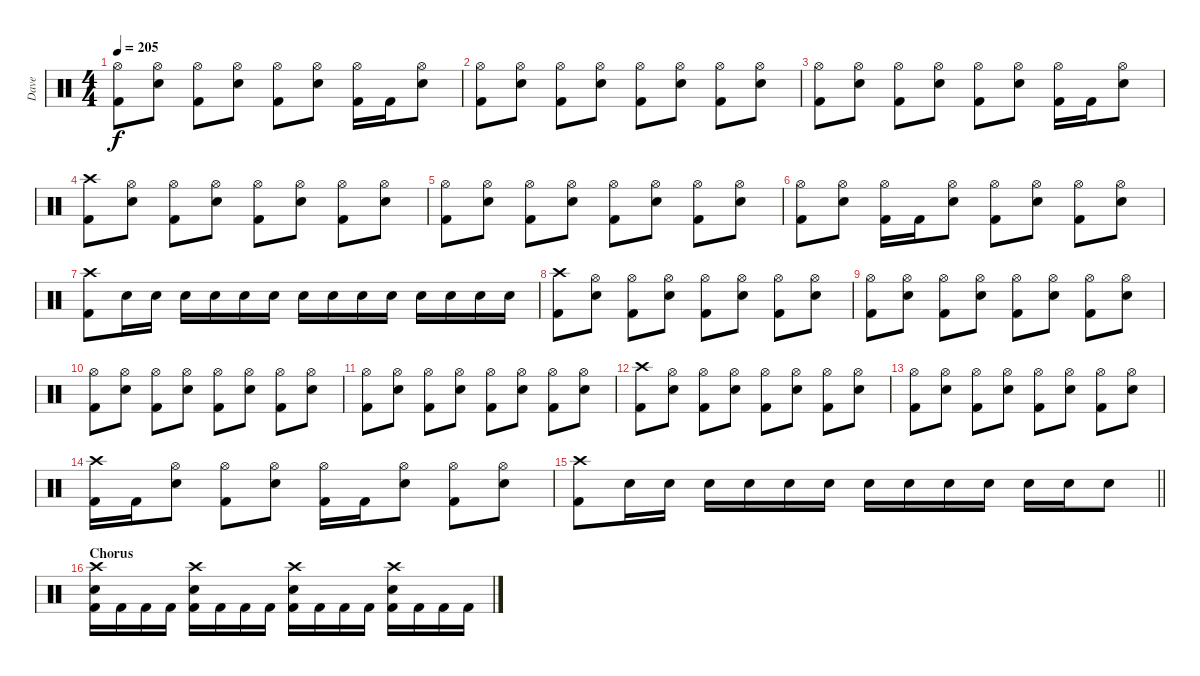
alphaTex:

\track ("Dave" "Dave") {instrument percussion}
\staff {score}
\articulation defaults
\ts (4 4)
\tempo 205
\clef neutral
\ks c
("Hi-Hat (open)" "Kick (hit) 2").8{dy f} ("Electric Snare (hit)" "Hi-Hat (open)").8 ("Kick (hit) 2" "Hi-Hat (open)").8 ("Electric Snare (hit)" "Hi-Hat (open)").8 ("Kick (hit) 2" "Hi-Hat (open)").8 ("Electric Snare (hit)" "Hi-Hat (open)").8 ("Kick (hit) 2" "Hi-Hat (open)").16 "Kick (hit) 2".16 ("Electric Snare (hit)" "Hi-Hat (open)").8 |
("Hi-Hat (open)" "Kick (hit) 2").8 ("Electric Snare (hit)" "Hi-Hat (open)").8 ("Kick (hit) 2" "Hi-Hat (open)").8 ("Electric Snare (hit)" "Hi-Hat (open)").8 ("Kick (hit) 2" "Hi-Hat (open)").8 ("Electric Snare (hit)" "Hi-Hat (open)").8 ("Kick (hit) 2" "Hi-Hat (open)").8 ("Electric Snare (hit)" "Hi-Hat (open)").8 |
("Hi-Hat (open)" "Kick (hit) 2").8 ("Electric Snare (hit)" "Hi-Hat (open)").8 ("Kick (hit) 2" "Hi-Hat (open)").8 ("Electric Snare (hit)" "Hi-Hat (open)").8 ("Kick (hit) 2" "Hi-Hat (open)").8 ("Electric Snare (hit)" "Hi-Hat (open)").8 ("Kick (hit) 2" "Hi-Hat (open)").16 "Kick (hit) 2".16 ("Electric Snare (hit)" "Hi-Hat (open)").8 |
("Crash high (hit)" "Kick (hit) 2").8 ("Electric Snare (hit)" "Hi-Hat (open)").8 ("Kick (hit) 2" "Hi-Hat (open)").8 ("Electric Snare (hit)" "Hi-Hat (open)").8 ("Kick (hit) 2" "Hi-Hat (open)").8 ("Electric Snare (hit)" "Hi-Hat (open)").8 ("Kick (hit) 2" "Hi-Hat (open)").8 ("Electric Snare (hit)" "Hi-Hat (open)").8 |
("Hi-Hat (open)" "Kick (hit) 2").8 ("Electric Snare (hit)" "Hi-Hat (open)").8 ("Kick (hit) 2" "Hi-Hat (open)").8 ("Electric Snare (hit)" "Hi-Hat (open)").8 ("Kick (hit) 2" "Hi-Hat (open)").8 ("Electric Snare (hit)" "Hi-Hat (open)").8 ("Kick (hit) 2" "Hi-Hat (open)").8 ("Electric Snare (hit)" "Hi-Hat (open)").8 |
("Hi-Hat (open)" "Kick (hit) 2").8 ("Electric Snare (hit)" "Hi-Hat (open)").8 ("Kick (hit) 2" "Hi-Hat (open)").16 "Kick (hit) 2".16 ("Electric Snare (hit)" "Hi-Hat (open)").8 ("Kick (hit) 2" "Hi-Hat (open)").8 ("Electric Snare (hit)" "Hi-Hat (open)").8 ("Kick (hit) 2" "Hi-Hat (open)").8 ("Electric Snare (hit)" "Hi-Hat (open)").8 |
("Kick (hit) 2" "Crash high (hit)").8 "Electric Snare (hit)".16 "Electric Snare (hit)".16 "Electric Snare (hit)".16 "Electric Snare (hit)".16 "Electric Snare (hit)".16 "Electric Snare (hit)".16 "Electric Snare (hit)".16 "Electric Snare (hit)".16 "Electric Snare (hit)".16 "Electric Snare (hit)".16 "Electric Snare (hit)".16 "Electric Snare (hit)".16 "Electric Snare (hit)".16 "Electric Snare (hit)".16 |
("Crash high (hit)" "Kick (hit) 2").8 ("Electric Snare (hit)" "Hi-Hat (open)").8 ("Kick (hit) 2" "Hi-Hat (open)").8 ("Electric Snare (hit)" "Hi-Hat (open)").8 ("Kick (hit) 2" "Hi-Hat (open)").8 ("Electric Snare (hit)" "Hi-Hat (open)").8 ("Kick (hit) 2" "Hi-Hat (open)").8 ("Electric Snare (hit)" "Hi-Hat (open)").8 |
("Hi-Hat (open)" "Kick (hit) 2").8 ("Electric Snare (hit)" "Hi-Hat (open)").8 ("Kick (hit) 2" "Hi-Hat (open)").8 ("Electric Snare (hit)" "Hi-Hat (open)").8 ("Kick (hit) 2" "Hi-Hat (open)").8 ("Electric Snare (hit)" "Hi-Hat (open)").8 ("Kick (hit) 2" "Hi-Hat (open)").8 ("Electric Snare (hit)" "Hi-Hat (open)").8 |
("Hi-Hat (open)" "Kick (hit) 2").8 ("Electric Snare (hit)" "Hi-Hat (open)").8 ("Kick (hit) 2" "Hi-Hat (open)").8 ("Electric Snare (hit)" "Hi-Hat (open)").8 ("Kick (hit) 2" "Hi-Hat (open)").8 ("Electric Snare (hit)" "Hi-Hat (open)").8 ("Kick (hit) 2" "Hi-Hat (open)").8 ("Electric Snare (hit)" "Hi-Hat (open)").8 |
("Hi-Hat (open)" "Kick (hit) 2").8 ("Electric Snare (hit)" "Hi-Hat (open)").8 ("Kick (hit) 2" "Hi-Hat (open)").8 ("Electric Snare (hit)" "Hi-Hat (open)").8 ("Kick (hit) 2" "Hi-Hat (open)").8 ("Electric Snare (hit)" "Hi-Hat (open)").8 ("Kick (hit) 2" "Hi-Hat (open)").8 ("Electric Snare (hit)" "Hi-Hat (open)").8 |
("Crash high (hit)" "Kick (hit) 2").8 ("Electric Snare (hit)" "Hi-Hat (open)").8 ("Kick (hit) 2" "Hi-Hat (open)").8 ("Electric Snare (hit)" "Hi-Hat (open)").8 ("Kick (hit) 2" "Hi-Hat (open)").8 ("Electric Snare (hit)" "Hi-Hat (open)").8 ("Kick (hit) 2" "Hi-Hat (open)").8 ("Electric Snare (hit)" "Hi-Hat (open)").8 |
("Hi-Hat (open)" "Kick (hit) 2").8 ("Electric Snare (hit)" "Hi-Hat (open)").8 ("Kick (hit) 2" "Hi-Hat (open)").8 ("Electric Snare (hit)" "Hi-Hat (open)").8 ("Kick (hit) 2" "Hi-Hat (open)").8 ("Electric Snare (hit)" "Hi-Hat (open)").8 ("Kick (hit) 2" "Hi-Hat (open)").8 ("Electric Snare (hit)" "Hi-Hat (open)").8 |
("Crash high (hit)" "Kick (hit) 2").16 "Kick (hit) 2".16 ("Electric Snare (hit)" "Hi-Hat (open)").8 ("Kick (hit) 2" "Hi-Hat (open)").8 ("Electric Snare (hit)" "Hi-Hat (open)").8 ("Kick (hit) 2" "Hi-Hat (open)").16 "Kick (hit) 2".16 ("Electric Snare (hit)" "Hi-Hat (open)").8 ("Kick (hit) 2" "Hi-Hat (open)").8 ("Electric Snare (hit)" "Hi-Hat (open)").8 |
\barLineRight lightlight
("Kick (hit) 2" "Crash high (hit)").8 "Electric Snare (hit)".16 "Electric Snare (hit)".16 "Electric Snare (hit)".16 "Electric Snare (hit)".16 "Electric Snare (hit)".16 "Electric Snare (hit)".16 "Electric Snare (hit)".16 "Electric Snare (hit)".16 "Electric Snare (hit)".16 "Electric Snare (hit)".16 "Electric Snare (hit)".16 "Electric Snare (hit)".16 "Electric Snare (hit)".8 |
\section ("" "Chorus")
("Crash high (hit)" "Electric Snare (hit)" "Kick (hit) 2").16 "Kick (hit) 2".16 "Kick (hit) 2".16 "Kick (hit) 2".16 ("Crash high (hit)" "Electric Snare (hit)" "Kick (hit) 2").16 "Kick (hit) 2".16 "Kick (hit) 2".16 "Kick (hit) 2".16 ("Crash high (hit)" "Electric Snare (hit)" "Kick (hit) 2").16 "Kick (hit) 2".16 "Kick (hit) 2".16 "Kick (hit) 2".16 ("Crash high (hit)" "Electric Snare (hit)" "Kick (hit) 2").16 "Kick (hit) 2".16 "Kick (hit) 2".16 "Kick (hit) 2".16
